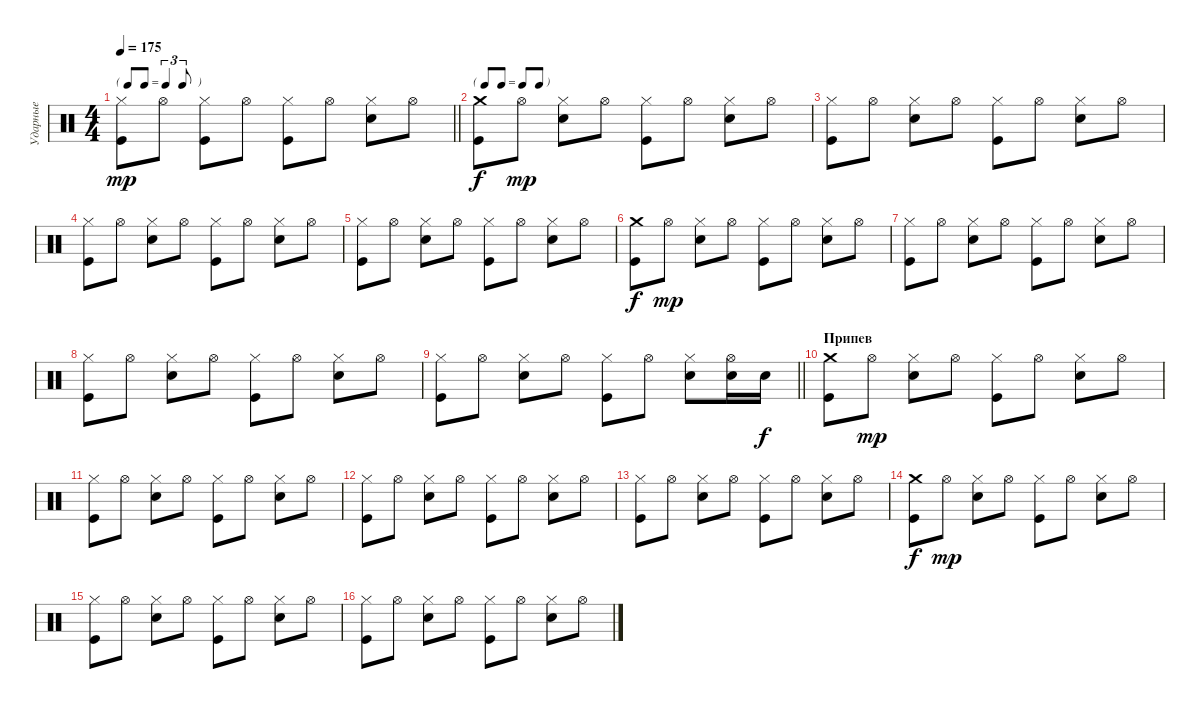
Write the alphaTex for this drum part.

\track ("Ударные" "Ударные") {instrument percussion}
\staff {score}
\articulation defaults
\ts (4 4)
\tf triplet8th
\tempo 175
\clef neutral
\barLineRight lightlight
\ks c
("Hi-Hat (closed)" "Kick (hit)").8{dy mp} "Hi-Hat (open)".8 ("Hi-Hat (closed)" "Kick (hit)").8 "Hi-Hat (open)".8 ("Hi-Hat (closed)" "Kick (hit)").8 "Hi-Hat (open)".8 ("Hi-Hat (closed)" "Electric Snare (hit)").8 "Hi-Hat (open)".8 |
\tf none
\section ("" " ")
("Crash medium (hit)" "Kick (hit)").8{dy f} "Hi-Hat (open)".8{dy mp} ("Hi-Hat (closed)" "Electric Snare (hit)").8 "Hi-Hat (open)".8 ("Hi-Hat (closed)" "Kick (hit)").8 "Hi-Hat (open)".8 ("Hi-Hat (closed)" "Electric Snare (hit)").8 "Hi-Hat (open)".8 |
("Hi-Hat (closed)" "Kick (hit)").8 "Hi-Hat (open)".8 ("Hi-Hat (closed)" "Electric Snare (hit)").8 "Hi-Hat (open)".8 ("Hi-Hat (closed)" "Kick (hit)").8 "Hi-Hat (open)".8 ("Hi-Hat (closed)" "Electric Snare (hit)").8 "Hi-Hat (open)".8 |
("Hi-Hat (closed)" "Kick (hit)").8 "Hi-Hat (open)".8 ("Hi-Hat (closed)" "Electric Snare (hit)").8 "Hi-Hat (open)".8 ("Hi-Hat (closed)" "Kick (hit)").8 "Hi-Hat (open)".8 ("Hi-Hat (closed)" "Electric Snare (hit)").8 "Hi-Hat (open)".8 |
("Hi-Hat (closed)" "Kick (hit)").8 "Hi-Hat (open)".8 ("Hi-Hat (closed)" "Electric Snare (hit)").8 "Hi-Hat (open)".8 ("Hi-Hat (closed)" "Kick (hit)").8 "Hi-Hat (open)".8 ("Hi-Hat (closed)" "Electric Snare (hit)").8 "Hi-Hat (open)".8 |
("Crash medium (hit)" "Kick (hit)").8{dy f} "Hi-Hat (open)".8{dy mp} ("Hi-Hat (closed)" "Electric Snare (hit)").8 "Hi-Hat (open)".8 ("Hi-Hat (closed)" "Kick (hit)").8 "Hi-Hat (open)".8 ("Hi-Hat (closed)" "Electric Snare (hit)").8 "Hi-Hat (open)".8 |
("Hi-Hat (closed)" "Kick (hit)").8 "Hi-Hat (open)".8 ("Hi-Hat (closed)" "Electric Snare (hit)").8 "Hi-Hat (open)".8 ("Hi-Hat (closed)" "Kick (hit)").8 "Hi-Hat (open)".8 ("Hi-Hat (closed)" "Electric Snare (hit)").8 "Hi-Hat (open)".8 |
("Hi-Hat (closed)" "Kick (hit)").8 "Hi-Hat (open)".8 ("Hi-Hat (closed)" "Electric Snare (hit)").8 "Hi-Hat (open)".8 ("Hi-Hat (closed)" "Kick (hit)").8 "Hi-Hat (open)".8 ("Hi-Hat (closed)" "Electric Snare (hit)").8 "Hi-Hat (open)".8 |
\barLineRight lightlight
("Hi-Hat (closed)" "Kick (hit)").8 "Hi-Hat (open)".8 ("Hi-Hat (closed)" "Electric Snare (hit)").8 "Hi-Hat (open)".8 ("Hi-Hat (closed)" "Kick (hit)").8 "Hi-Hat (open)".8 ("Hi-Hat (closed)" "Electric Snare (hit)").8 ("Hi-Hat (open)" "Electric Snare (hit)").16 "Electric Snare (hit)".16{dy f} |
\section ("" "Припев")
("Crash medium (hit)" "Kick (hit)").8 "Hi-Hat (open)".8{dy mp} ("Hi-Hat (closed)" "Electric Snare (hit)").8 "Hi-Hat (open)".8 ("Hi-Hat (closed)" "Kick (hit)").8 "Hi-Hat (open)".8 ("Hi-Hat (closed)" "Electric Snare (hit)").8 "Hi-Hat (open)".8 |
("Hi-Hat (closed)" "Kick (hit)").8 "Hi-Hat (open)".8 ("Hi-Hat (closed)" "Electric Snare (hit)").8 "Hi-Hat (open)".8 ("Hi-Hat (closed)" "Kick (hit)").8 "Hi-Hat (open)".8 ("Hi-Hat (closed)" "Electric Snare (hit)").8 "Hi-Hat (open)".8 |
("Hi-Hat (closed)" "Kick (hit)").8 "Hi-Hat (open)".8 ("Hi-Hat (closed)" "Electric Snare (hit)").8 "Hi-Hat (open)".8 ("Hi-Hat (closed)" "Kick (hit)").8 "Hi-Hat (open)".8 ("Hi-Hat (closed)" "Electric Snare (hit)").8 "Hi-Hat (open)".8 |
("Hi-Hat (closed)" "Kick (hit)").8 "Hi-Hat (open)".8 ("Hi-Hat (closed)" "Electric Snare (hit)").8 "Hi-Hat (open)".8 ("Hi-Hat (closed)" "Kick (hit)").8 "Hi-Hat (open)".8 ("Hi-Hat (closed)" "Electric Snare (hit)").8 "Hi-Hat (open)".8 |
("Crash medium (hit)" "Kick (hit)").8{dy f} "Hi-Hat (open)".8{dy mp} ("Hi-Hat (closed)" "Electric Snare (hit)").8 "Hi-Hat (open)".8 ("Hi-Hat (closed)" "Kick (hit)").8 "Hi-Hat (open)".8 ("Hi-Hat (closed)" "Electric Snare (hit)").8 "Hi-Hat (open)".8 |
("Hi-Hat (closed)" "Kick (hit)").8 "Hi-Hat (open)".8 ("Hi-Hat (closed)" "Electric Snare (hit)").8 "Hi-Hat (open)".8 ("Hi-Hat (closed)" "Kick (hit)").8 "Hi-Hat (open)".8 ("Hi-Hat (closed)" "Electric Snare (hit)").8 "Hi-Hat (open)".8 |
("Hi-Hat (closed)" "Kick (hit)").8 "Hi-Hat (open)".8 ("Hi-Hat (closed)" "Electric Snare (hit)").8 "Hi-Hat (open)".8 ("Hi-Hat (closed)" "Kick (hit)").8 "Hi-Hat (open)".8 ("Hi-Hat (closed)" "Electric Snare (hit)").8 "Hi-Hat (open)".8
